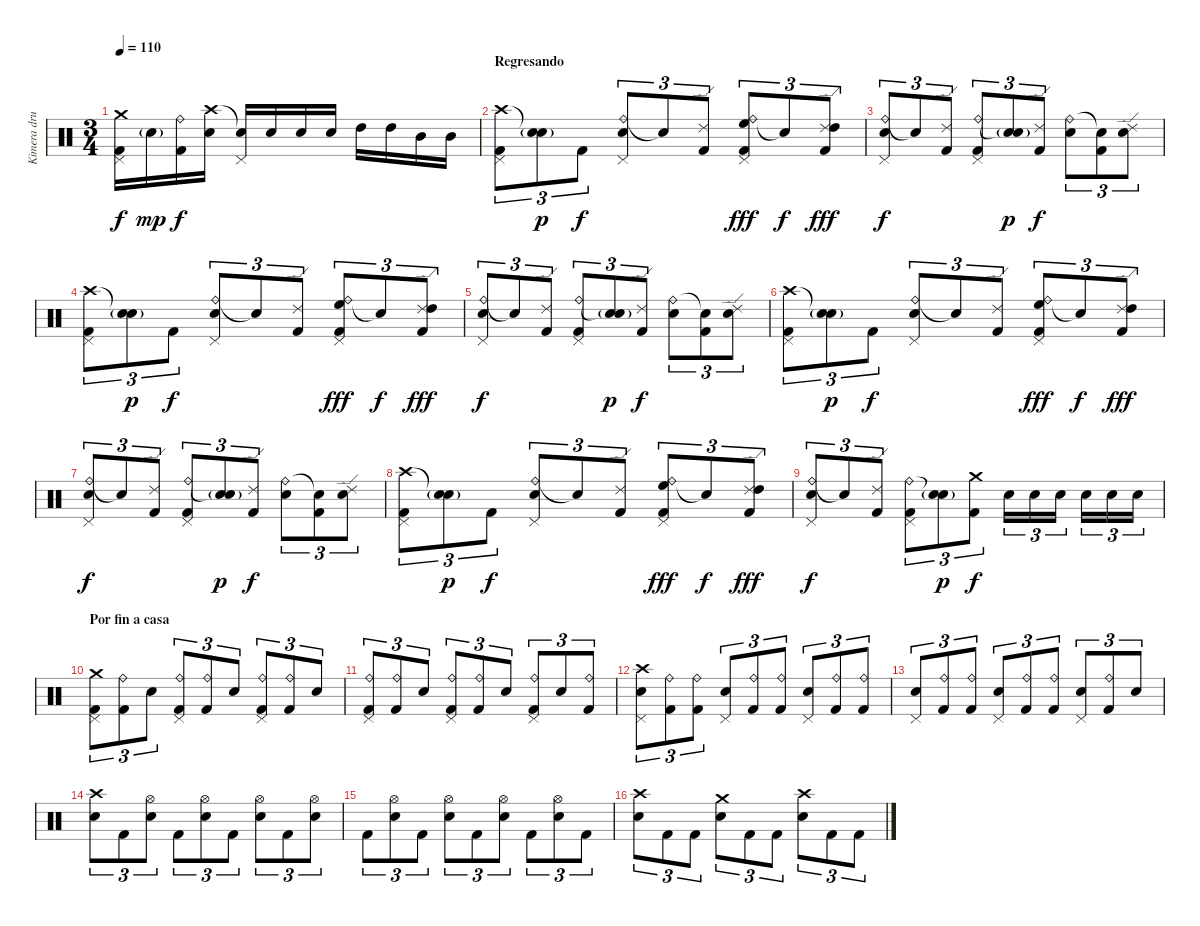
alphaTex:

\track ("Kimera drummer" "Kimera dru") {instrument percussion}
\staff {score}
\articulation defaults
\ts (3 4)
\tempo 110
\clef neutral
\ks c
("Crash medium (hit)" "Pedal Hi-Hat (hit)" "Kick (hit) 2").16{dy f} "Electric Snare (hit)"{g}.16{dy mp} ("Ride (bell)" "Kick (hit) 2").16{dy f} ("Crash high (hit)" "Electric Snare (hit)").16 ("Snare (hit)"{t} "Pedal Hi-Hat (hit)").16 "Electric Snare (hit)".16 "Electric Snare (hit)".16 "Electric Snare (hit)".16 "High Tom (hit)".16 "High Tom (hit)".16 "Mid Tom (hit)".16 "Mid Tom (hit)".16 |
\section ("" "Regresando")
("Crash high (hit)" "Pedal Hi-Hat (hit)" "Kick (hit) 2").8{tu (3 2)} ("Snare (hit)"{t} "Electric Snare (hit)"{g}).8{tu (3 2) dy p} "Kick (hit) 2".8{tu (3 2) dy f} ("Ride (bell)" "Electric Snare (hit)" "Pedal Hi-Hat (hit)").8{tu (3 2)} "Snare (hit)"{t}.8{tu (3 2)} ("Ride (edge) 2" "Kick (hit) 2").8{tu (3 2)} ("Ride (bell)" "High Floor Tom (hit)" "Pedal Hi-Hat (hit)" "Kick (hit) 2").8{tu (3 2) dy fff} "Snare (hit)"{t}.8{tu (3 2) dy f} ("Ride (edge) 2" "High Tom (hit)" "Kick (hit) 2").8{tu (3 2) dy fff} |
("Ride (bell)" "Electric Snare (hit)" "Pedal Hi-Hat (hit)").8{tu (3 2) dy f} "Snare (hit)"{t}.8{tu (3 2)} ("Ride (edge) 2" "Kick (hit) 2").8{tu (3 2)} ("Ride (bell)" "Pedal Hi-Hat (hit)" "Kick (hit) 2").8{tu (3 2)} ("Snare (hit)"{t} "Electric Snare (hit)"{g}).8{tu (3 2) dy p} ("Ride (edge) 2" "Kick (hit) 2").8{tu (3 2) dy f} ("Ride (bell)" "Electric Snare (hit)").8{tu (3 2)} ("Snare (hit)"{t} "Kick (hit) 2").8{tu (3 2)} ("Ride (edge) 2" "Electric Snare (hit)").8{tu (3 2)} |
("Crash high (hit)" "Pedal Hi-Hat (hit)" "Kick (hit) 2").8{tu (3 2)} ("Snare (hit)"{t} "Electric Snare (hit)"{g}).8{tu (3 2) dy p} "Kick (hit) 2".8{tu (3 2) dy f} ("Ride (bell)" "Electric Snare (hit)" "Pedal Hi-Hat (hit)").8{tu (3 2)} "Snare (hit)"{t}.8{tu (3 2)} ("Ride (edge) 2" "Kick (hit) 2").8{tu (3 2)} ("Ride (bell)" "High Floor Tom (hit)" "Pedal Hi-Hat (hit)" "Kick (hit) 2").8{tu (3 2) dy fff} "Snare (hit)"{t}.8{tu (3 2) dy f} ("Ride (edge) 2" "High Tom (hit)" "Kick (hit) 2").8{tu (3 2) dy fff} |
("Ride (bell)" "Electric Snare (hit)" "Pedal Hi-Hat (hit)").8{tu (3 2) dy f} "Snare (hit)"{t}.8{tu (3 2)} ("Ride (edge) 2" "Kick (hit) 2").8{tu (3 2)} ("Ride (bell)" "Pedal Hi-Hat (hit)" "Kick (hit) 2").8{tu (3 2)} ("Snare (hit)"{t} "Electric Snare (hit)"{g}).8{tu (3 2) dy p} ("Ride (edge) 2" "Kick (hit) 2").8{tu (3 2) dy f} ("Ride (bell)" "Electric Snare (hit)").8{tu (3 2)} ("Snare (hit)"{t} "Kick (hit) 2").8{tu (3 2)} ("Ride (edge) 2" "Electric Snare (hit)").8{tu (3 2)} |
("Crash high (hit)" "Pedal Hi-Hat (hit)" "Kick (hit) 2").8{tu (3 2)} ("Snare (hit)"{t} "Electric Snare (hit)"{g}).8{tu (3 2) dy p} "Kick (hit) 2".8{tu (3 2) dy f} ("Ride (bell)" "Electric Snare (hit)" "Pedal Hi-Hat (hit)").8{tu (3 2)} "Snare (hit)"{t}.8{tu (3 2)} ("Ride (edge) 2" "Kick (hit) 2").8{tu (3 2)} ("Ride (bell)" "High Floor Tom (hit)" "Pedal Hi-Hat (hit)" "Kick (hit) 2").8{tu (3 2) dy fff} "Snare (hit)"{t}.8{tu (3 2) dy f} ("Ride (edge) 2" "High Tom (hit)" "Kick (hit) 2").8{tu (3 2) dy fff} |
("Ride (bell)" "Electric Snare (hit)" "Pedal Hi-Hat (hit)").8{tu (3 2) dy f} "Snare (hit)"{t}.8{tu (3 2)} ("Ride (edge) 2" "Kick (hit) 2").8{tu (3 2)} ("Ride (bell)" "Pedal Hi-Hat (hit)" "Kick (hit) 2").8{tu (3 2)} ("Snare (hit)"{t} "Electric Snare (hit)"{g}).8{tu (3 2) dy p} ("Ride (edge) 2" "Kick (hit) 2").8{tu (3 2) dy f} ("Ride (bell)" "Electric Snare (hit)").8{tu (3 2)} ("Snare (hit)"{t} "Kick (hit) 2").8{tu (3 2)} ("Ride (edge) 2" "Electric Snare (hit)").8{tu (3 2)} |
("Crash high (hit)" "Pedal Hi-Hat (hit)" "Kick (hit) 2").8{tu (3 2)} ("Snare (hit)"{t} "Electric Snare (hit)"{g}).8{tu (3 2) dy p} "Kick (hit) 2".8{tu (3 2) dy f} ("Ride (bell)" "Electric Snare (hit)" "Pedal Hi-Hat (hit)").8{tu (3 2)} "Snare (hit)"{t}.8{tu (3 2)} ("Ride (edge) 2" "Kick (hit) 2").8{tu (3 2)} ("Ride (bell)" "High Floor Tom (hit)" "Pedal Hi-Hat (hit)" "Kick (hit) 2").8{tu (3 2) dy fff} "Snare (hit)"{t}.8{tu (3 2) dy f} ("Ride (edge) 2" "High Tom (hit)" "Kick (hit) 2").8{tu (3 2) dy fff} |
("Ride (bell)" "Electric Snare (hit)" "Pedal Hi-Hat (hit)").8{tu (3 2) dy f} "Snare (hit)"{t}.8{tu (3 2)} ("Ride (edge) 2" "Kick (hit) 2").8{tu (3 2)} ("Ride (bell)" "Pedal Hi-Hat (hit)" "Kick (hit) 2").8{tu (3 2)} ("Snare (hit)"{t} "Electric Snare (hit)"{g}).8{tu (3 2) dy p} ("Crash medium (hit)" "Kick (hit) 2").8{tu (3 2) dy f} "Electric Snare (hit)".16{tu (3 2)} "Electric Snare (hit)".16{tu (3 2)} "Electric Snare (hit)".16{tu (3 2)} "Electric Snare (hit)".16{tu (3 2)} "Electric Snare (hit)".16{tu (3 2)} "Electric Snare (hit)".16{tu (3 2)} |
\section ("" "Por fin a casa")
("Crash medium (hit)" "Pedal Hi-Hat (hit)" "Kick (hit) 2").8{tu (3 2)} ("Ride (bell)" "Kick (hit) 2").8{tu (3 2)} "Electric Snare (hit)".8{tu (3 2)} ("Ride (bell)" "Pedal Hi-Hat (hit)" "Kick (hit) 2").8{tu (3 2)} ("Ride (bell)" "Kick (hit) 2").8{tu (3 2)} "Electric Snare (hit)".8{tu (3 2)} ("Ride (bell)" "Pedal Hi-Hat (hit)" "Kick (hit) 2").8{tu (3 2)} ("Ride (bell)" "Kick (hit) 2").8{tu (3 2)} "Electric Snare (hit)".8{tu (3 2)} |
("Ride (bell)" "Pedal Hi-Hat (hit)" "Kick (hit) 2").8{tu (3 2)} ("Ride (bell)" "Kick (hit) 2").8{tu (3 2)} "Electric Snare (hit)".8{tu (3 2)} ("Ride (bell)" "Pedal Hi-Hat (hit)" "Kick (hit) 2").8{tu (3 2)} ("Ride (bell)" "Kick (hit) 2").8{tu (3 2)} "Electric Snare (hit)".8{tu (3 2)} ("Ride (bell)" "Pedal Hi-Hat (hit)" "Kick (hit) 2").8{tu (3 2)} "Electric Snare (hit)".8{tu (3 2)} ("Ride (bell)" "Kick (hit) 2").8{tu (3 2)} |
("Crash high (hit)" "Electric Snare (hit)" "Pedal Hi-Hat (hit)").8{tu (3 2)} ("Ride (bell)" "Kick (hit) 2").8{tu (3 2)} ("Ride (bell)" "Kick (hit) 2").8{tu (3 2)} ("Electric Snare (hit)" "Pedal Hi-Hat (hit)").8{tu (3 2)} ("Ride (bell)" "Kick (hit) 2").8{tu (3 2)} ("Ride (bell)" "Kick (hit) 2").8{tu (3 2)} ("Electric Snare (hit)" "Pedal Hi-Hat (hit)").8{tu (3 2)} ("Ride (bell)" "Kick (hit) 2").8{tu (3 2)} ("Ride (bell)" "Kick (hit) 2").8{tu (3 2)} |
("Electric Snare (hit)" "Pedal Hi-Hat (hit)").8{tu (3 2)} ("Ride (bell)" "Kick (hit) 2").8{tu (3 2)} ("Ride (bell)" "Kick (hit) 2").8{tu (3 2)} ("Electric Snare (hit)" "Pedal Hi-Hat (hit)").8{tu (3 2)} ("Ride (bell)" "Kick (hit) 2").8{tu (3 2)} ("Ride (bell)" "Kick (hit) 2").8{tu (3 2)} ("Electric Snare (hit)" "Pedal Hi-Hat (hit)").8{tu (3 2)} ("Ride (bell)" "Kick (hit) 2").8{tu (3 2)} "Electric Snare (hit)".8{tu (3 2)} |
("Crash high (hit)" "Electric Snare (hit)").8{tu (3 2)} "Kick (hit) 2".8{tu (3 2)} ("Hi-Hat (open)" "Electric Snare (hit)").8{tu (3 2)} "Kick (hit) 2".8{tu (3 2)} ("Hi-Hat (open)" "Electric Snare (hit)").8{tu (3 2)} "Kick (hit) 2".8{tu (3 2)} ("Hi-Hat (open)" "Electric Snare (hit)").8{tu (3 2)} "Kick (hit) 2".8{tu (3 2)} ("Hi-Hat (open)" "Electric Snare (hit)").8{tu (3 2)} |
"Kick (hit) 2".8{tu (3 2)} ("Hi-Hat (open)" "Electric Snare (hit)").8{tu (3 2)} "Kick (hit) 2".8{tu (3 2)} ("Hi-Hat (open)" "Electric Snare (hit)").8{tu (3 2)} "Kick (hit) 2".8{tu (3 2)} ("Hi-Hat (open)" "Electric Snare (hit)").8{tu (3 2)} "Kick (hit) 2".8{tu (3 2)} ("Hi-Hat (open)" "Electric Snare (hit)").8{tu (3 2)} "Kick (hit) 2".8{tu (3 2)} |
("Crash high (hit)" "Electric Snare (hit)").8{tu (3 2)} "Kick (hit) 2".8{tu (3 2)} "Kick (hit) 2".8{tu (3 2)} ("Crash medium (hit)" "Electric Snare (hit)").8{tu (3 2)} "Kick (hit) 2".8{tu (3 2)} "Kick (hit) 2".8{tu (3 2)} ("Crash high (hit)" "Electric Snare (hit)").8{tu (3 2)} "Kick (hit) 2".8{tu (3 2)} "Kick (hit) 2".8{tu (3 2)}
